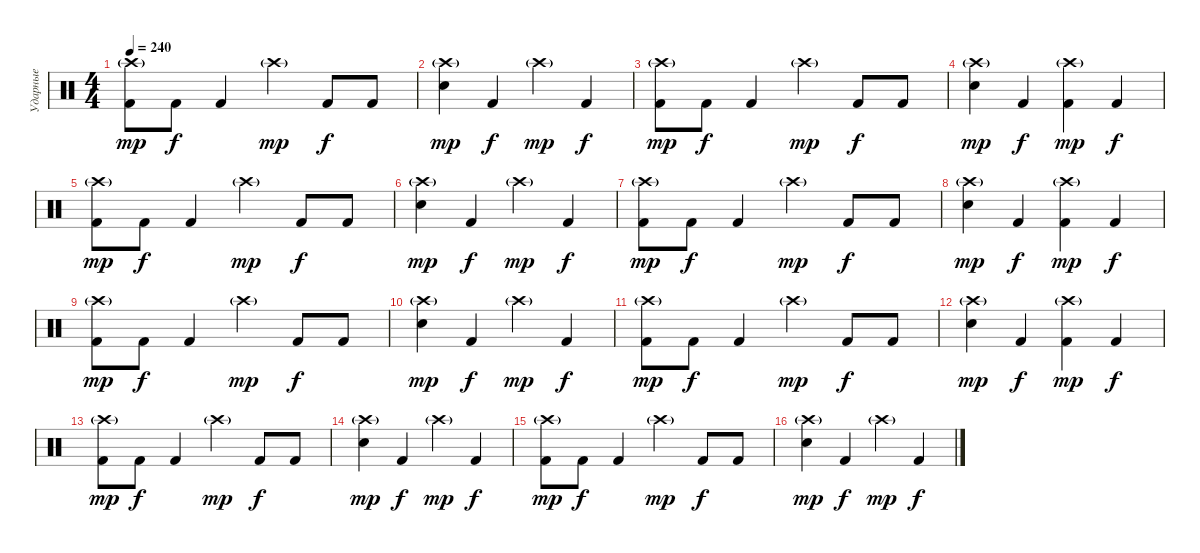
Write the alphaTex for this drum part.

\track ("Ударные" "Ударные") {instrument percussion}
\staff {score}
\articulation defaults
\ts (4 4)
\tempo 240
\clef neutral
\ks c
("Crash high (hit)"{g} "Kick (hit) 2").8{dy mp} "Kick (hit) 2".8{dy f} "Kick (hit) 2".4 "Crash high (hit)"{g}.4{dy mp} "Kick (hit) 2".8{dy f} "Kick (hit) 2".8 |
("Crash high (hit)"{g} "Electric Snare (hit)").4{dy mp} "Kick (hit) 2".4{dy f} "Crash high (hit)"{g}.4{dy mp} "Kick (hit) 2".4{dy f} |
("Crash high (hit)"{g} "Kick (hit) 2").8{dy mp} "Kick (hit) 2".8{dy f} "Kick (hit) 2".4 "Crash high (hit)"{g}.4{dy mp} "Kick (hit) 2".8{dy f} "Kick (hit) 2".8 |
("Crash high (hit)"{g} "Electric Snare (hit)").4{dy mp} "Kick (hit) 2".4{dy f} ("Crash high (hit)"{g} "Kick (hit) 2").4{dy mp} "Kick (hit) 2".4{dy f} |
("Crash high (hit)"{g} "Kick (hit) 2").8{dy mp} "Kick (hit) 2".8{dy f} "Kick (hit) 2".4 "Crash high (hit)"{g}.4{dy mp} "Kick (hit) 2".8{dy f} "Kick (hit) 2".8 |
("Crash high (hit)"{g} "Electric Snare (hit)").4{dy mp} "Kick (hit) 2".4{dy f} "Crash high (hit)"{g}.4{dy mp} "Kick (hit) 2".4{dy f} |
("Crash high (hit)"{g} "Kick (hit) 2").8{dy mp} "Kick (hit) 2".8{dy f} "Kick (hit) 2".4 "Crash high (hit)"{g}.4{dy mp} "Kick (hit) 2".8{dy f} "Kick (hit) 2".8 |
("Crash high (hit)"{g} "Electric Snare (hit)").4{dy mp} "Kick (hit) 2".4{dy f} ("Crash high (hit)"{g} "Kick (hit) 2").4{dy mp} "Kick (hit) 2".4{dy f} |
("Crash high (hit)"{g} "Kick (hit) 2").8{dy mp} "Kick (hit) 2".8{dy f} "Kick (hit) 2".4 "Crash high (hit)"{g}.4{dy mp} "Kick (hit) 2".8{dy f} "Kick (hit) 2".8 |
("Crash high (hit)"{g} "Electric Snare (hit)").4{dy mp} "Kick (hit) 2".4{dy f} "Crash high (hit)"{g}.4{dy mp} "Kick (hit) 2".4{dy f} |
("Crash high (hit)"{g} "Kick (hit) 2").8{dy mp} "Kick (hit) 2".8{dy f} "Kick (hit) 2".4 "Crash high (hit)"{g}.4{dy mp} "Kick (hit) 2".8{dy f} "Kick (hit) 2".8 |
("Crash high (hit)"{g} "Electric Snare (hit)").4{dy mp} "Kick (hit) 2".4{dy f} ("Crash high (hit)"{g} "Kick (hit) 2").4{dy mp} "Kick (hit) 2".4{dy f} |
("Crash high (hit)"{g} "Kick (hit) 2").8{dy mp} "Kick (hit) 2".8{dy f} "Kick (hit) 2".4 "Crash high (hit)"{g}.4{dy mp} "Kick (hit) 2".8{dy f} "Kick (hit) 2".8 |
("Crash high (hit)"{g} "Electric Snare (hit)").4{dy mp} "Kick (hit) 2".4{dy f} "Crash high (hit)"{g}.4{dy mp} "Kick (hit) 2".4{dy f} |
("Crash high (hit)"{g} "Kick (hit) 2").8{dy mp} "Kick (hit) 2".8{dy f} "Kick (hit) 2".4 "Crash high (hit)"{g}.4{dy mp} "Kick (hit) 2".8{dy f} "Kick (hit) 2".8 |
("Crash high (hit)"{g} "Electric Snare (hit)").4{dy mp} "Kick (hit) 2".4{dy f} "Crash high (hit)"{g}.4{dy mp} "Kick (hit) 2".4{dy f}
